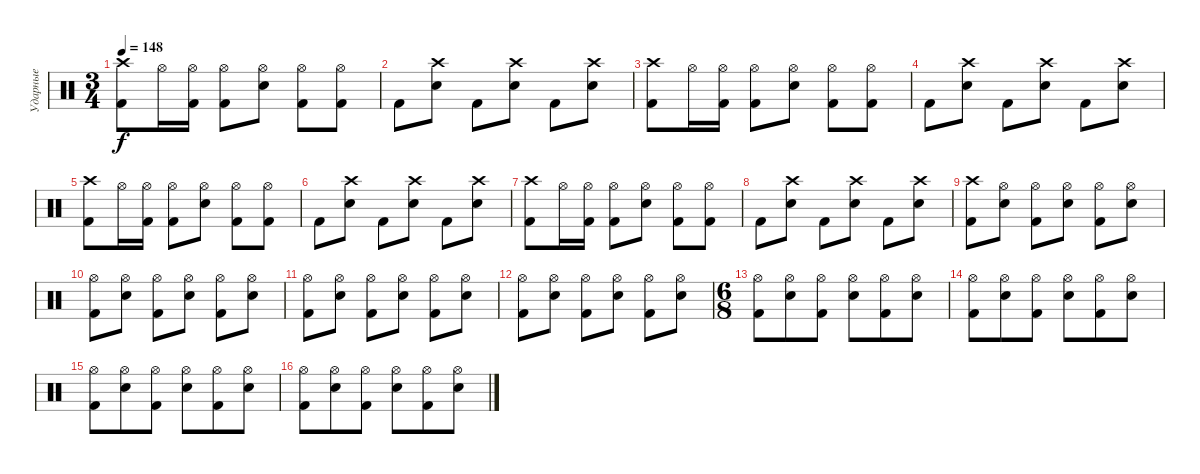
\track ("Ударные" "Ударные") {instrument percussion}
\staff {score}
\articulation defaults
\ts (3 4)
\tempo 148
\clef neutral
\ks c
("Crash high (hit)" "Kick (hit) 2").8{dy f} "Hi-Hat (open)".16 ("Hi-Hat (open)" "Kick (hit) 2").16 ("Hi-Hat (open)" "Kick (hit) 2").8 ("Hi-Hat (open)" "Electric Snare (hit)").8 ("Hi-Hat (open)" "Kick (hit) 2").8 ("Hi-Hat (open)" "Kick (hit) 2").8 |
"Kick (hit) 2".8 ("Crash high (hit)" "Electric Snare (hit)").8 "Kick (hit) 2".8 ("Crash high (hit)" "Electric Snare (hit)").8 "Kick (hit) 2".8 ("Crash high (hit)" "Electric Snare (hit)").8 |
("Crash high (hit)" "Kick (hit) 2").8 "Hi-Hat (open)".16 ("Hi-Hat (open)" "Kick (hit) 2").16 ("Hi-Hat (open)" "Kick (hit) 2").8 ("Hi-Hat (open)" "Electric Snare (hit)").8 ("Hi-Hat (open)" "Kick (hit) 2").8 ("Hi-Hat (open)" "Kick (hit) 2").8 |
"Kick (hit) 2".8 ("Crash high (hit)" "Electric Snare (hit)").8 "Kick (hit) 2".8 ("Crash high (hit)" "Electric Snare (hit)").8 "Kick (hit) 2".8 ("Crash high (hit)" "Electric Snare (hit)").8 |
("Crash high (hit)" "Kick (hit) 2").8 "Hi-Hat (open)".16 ("Hi-Hat (open)" "Kick (hit) 2").16 ("Hi-Hat (open)" "Kick (hit) 2").8 ("Hi-Hat (open)" "Electric Snare (hit)").8 ("Hi-Hat (open)" "Kick (hit) 2").8 ("Hi-Hat (open)" "Kick (hit) 2").8 |
"Kick (hit) 2".8 ("Crash high (hit)" "Electric Snare (hit)").8 "Kick (hit) 2".8 ("Crash high (hit)" "Electric Snare (hit)").8 "Kick (hit) 2".8 ("Crash high (hit)" "Electric Snare (hit)").8 |
("Crash high (hit)" "Kick (hit) 2").8 "Hi-Hat (open)".16 ("Hi-Hat (open)" "Kick (hit) 2").16 ("Hi-Hat (open)" "Kick (hit) 2").8 ("Hi-Hat (open)" "Electric Snare (hit)").8 ("Hi-Hat (open)" "Kick (hit) 2").8 ("Hi-Hat (open)" "Kick (hit) 2").8 |
"Kick (hit) 2".8 ("Crash high (hit)" "Electric Snare (hit)").8 "Kick (hit) 2".8 ("Crash high (hit)" "Electric Snare (hit)").8 "Kick (hit) 2".8 ("Crash high (hit)" "Electric Snare (hit)").8 |
("Crash high (hit)" "Kick (hit) 2").8 ("Hi-Hat (open)" "Electric Snare (hit)").8 ("Hi-Hat (open)" "Kick (hit) 2").8 ("Hi-Hat (open)" "Electric Snare (hit)").8 ("Hi-Hat (open)" "Kick (hit) 2").8 ("Hi-Hat (open)" "Electric Snare (hit)").8 |
("Hi-Hat (open)" "Kick (hit) 2").8 ("Hi-Hat (open)" "Electric Snare (hit)").8 ("Hi-Hat (open)" "Kick (hit) 2").8 ("Hi-Hat (open)" "Electric Snare (hit)").8 ("Hi-Hat (open)" "Kick (hit) 2").8 ("Hi-Hat (open)" "Electric Snare (hit)").8 |
("Hi-Hat (open)" "Kick (hit) 2").8 ("Hi-Hat (open)" "Electric Snare (hit)").8 ("Hi-Hat (open)" "Kick (hit) 2").8 ("Hi-Hat (open)" "Electric Snare (hit)").8 ("Hi-Hat (open)" "Kick (hit) 2").8 ("Hi-Hat (open)" "Electric Snare (hit)").8 |
("Hi-Hat (open)" "Kick (hit) 2").8 ("Hi-Hat (open)" "Electric Snare (hit)").8 ("Hi-Hat (open)" "Kick (hit) 2").8 ("Hi-Hat (open)" "Electric Snare (hit)").8 ("Hi-Hat (open)" "Kick (hit) 2").8 ("Hi-Hat (open)" "Electric Snare (hit)").8 |
\ts (6 8)
("Hi-Hat (open)" "Kick (hit) 2").8 ("Hi-Hat (open)" "Electric Snare (hit)").8 ("Hi-Hat (open)" "Kick (hit) 2").8 ("Hi-Hat (open)" "Electric Snare (hit)").8 ("Hi-Hat (open)" "Kick (hit) 2").8 ("Hi-Hat (open)" "Electric Snare (hit)").8 |
("Hi-Hat (open)" "Kick (hit) 2").8 ("Hi-Hat (open)" "Electric Snare (hit)").8 ("Hi-Hat (open)" "Kick (hit) 2").8 ("Hi-Hat (open)" "Electric Snare (hit)").8 ("Hi-Hat (open)" "Kick (hit) 2").8 ("Hi-Hat (open)" "Electric Snare (hit)").8 |
("Hi-Hat (open)" "Kick (hit) 2").8 ("Hi-Hat (open)" "Electric Snare (hit)").8 ("Hi-Hat (open)" "Kick (hit) 2").8 ("Hi-Hat (open)" "Electric Snare (hit)").8 ("Hi-Hat (open)" "Kick (hit) 2").8 ("Hi-Hat (open)" "Electric Snare (hit)").8 |
("Hi-Hat (open)" "Kick (hit) 2").8 ("Hi-Hat (open)" "Electric Snare (hit)").8 ("Hi-Hat (open)" "Kick (hit) 2").8 ("Hi-Hat (open)" "Electric Snare (hit)").8 ("Hi-Hat (open)" "Kick (hit) 2").8 ("Hi-Hat (open)" "Electric Snare (hit)").8
